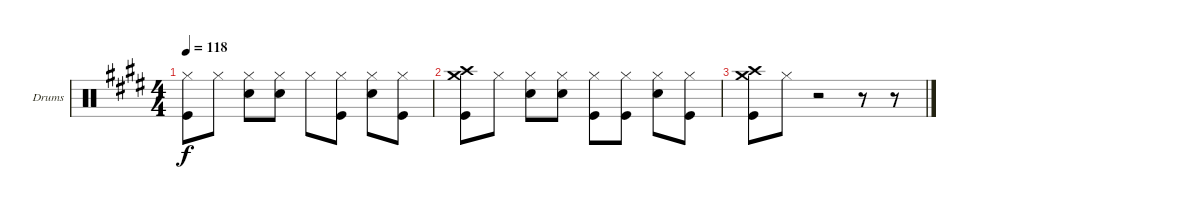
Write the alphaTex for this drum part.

\defaultSystemsLayout 4
\bracketExtendMode groupsimilarinstruments
\firstSystemTrackNameOrientation horizontal
\otherSystemsTrackNameOrientation horizontal
\track ("Drumkit" "Drums") {instrument percussion}
\staff {score}
\articulation defaults
\ts (4 4)
\scale
0.457143
\tempo 118
\accidentals auto
\clef neutral
\ottava regular
\simile none
\ks e
("Hi-Hat (closed)" "Kick (hit)").8{dy f} "Hi-Hat (closed)".8 ("Hi-Hat (closed)" "Snare (hit) 2").8 ("Hi-Hat (closed)" "Snare (hit) 2").8 "Hi-Hat (closed)".8 ("Hi-Hat (closed)" "Kick (hit)").8 ("Hi-Hat (closed)" "Snare (hit) 2").8 ("Hi-Hat (closed)" "Kick (hit)").8 |
\scale
0.228571 ("Crash medium (hit)" "Crash high (hit)" "Kick (hit)").8 "Hi-Hat (closed)".8 ("Hi-Hat (closed)" "Snare (hit) 2").8 ("Hi-Hat (closed)" "Snare (hit) 2").8 ("Hi-Hat (closed)" "Kick (hit)").8 ("Hi-Hat (closed)" "Kick (hit)").8 ("Hi-Hat (closed)" "Snare (hit) 2").8 ("Hi-Hat (closed)" "Kick (hit)").8 |
\scale
0.314286 ("Crash medium (hit)" "Crash high (hit)" "Kick (hit)").8 "Hi-Hat (closed)".8 r.2 r.8 r.8
